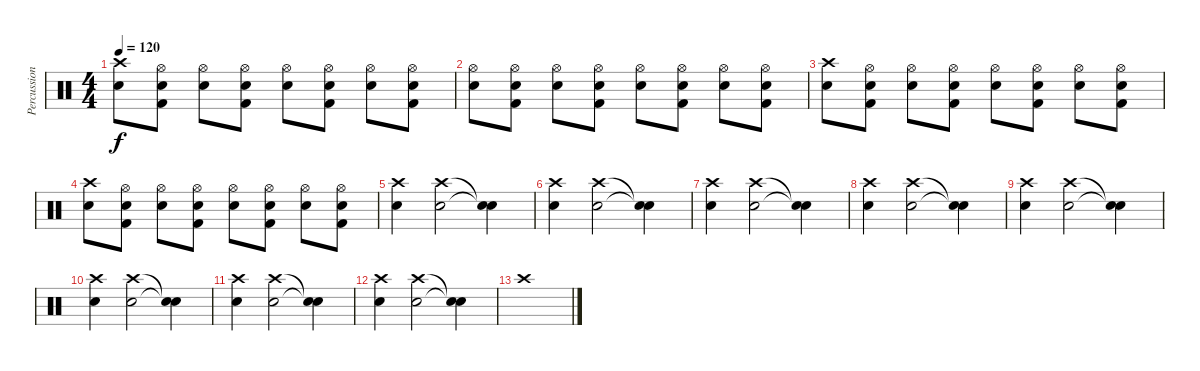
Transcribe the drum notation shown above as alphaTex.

\track ("Percussion" "Percussion") {instrument percussion}
\staff {score}
\articulation defaults
\ts (4 4)
\tempo 120
\clef neutral
\ks c
("Snare (hit) 2" "Crash high (hit)").8{dy f} ("Hi-Hat (open)" "Snare (hit) 2" "Kick (hit) 2").8 ("Hi-Hat (open)" "Snare (hit) 2").8 ("Hi-Hat (open)" "Snare (hit) 2" "Kick (hit) 2").8 ("Hi-Hat (open)" "Snare (hit) 2").8 ("Hi-Hat (open)" "Snare (hit) 2" "Kick (hit) 2").8 ("Hi-Hat (open)" "Snare (hit) 2").8 ("Hi-Hat (open)" "Snare (hit) 2" "Kick (hit) 2").8 |
("Hi-Hat (open)" "Snare (hit) 2").8 ("Hi-Hat (open)" "Snare (hit) 2" "Kick (hit) 2").8 ("Hi-Hat (open)" "Snare (hit) 2").8 ("Hi-Hat (open)" "Snare (hit) 2" "Kick (hit) 2").8 ("Hi-Hat (open)" "Snare (hit) 2").8 ("Hi-Hat (open)" "Snare (hit) 2" "Kick (hit) 2").8 ("Hi-Hat (open)" "Snare (hit) 2").8 ("Hi-Hat (open)" "Snare (hit) 2" "Kick (hit) 2").8 |
("Snare (hit) 2" "Crash high (hit)").8 ("Hi-Hat (open)" "Snare (hit) 2" "Kick (hit) 2").8 ("Hi-Hat (open)" "Snare (hit) 2").8 ("Hi-Hat (open)" "Snare (hit) 2" "Kick (hit) 2").8 ("Hi-Hat (open)" "Snare (hit) 2").8 ("Hi-Hat (open)" "Snare (hit) 2" "Kick (hit) 2").8 ("Hi-Hat (open)" "Snare (hit) 2").8 ("Hi-Hat (open)" "Snare (hit) 2" "Kick (hit) 2").8 |
("Snare (hit) 2" "Crash high (hit)").8 ("Hi-Hat (open)" "Snare (hit) 2" "Kick (hit) 2").8 ("Hi-Hat (open)" "Snare (hit) 2").8 ("Hi-Hat (open)" "Snare (hit) 2" "Kick (hit) 2").8 ("Hi-Hat (open)" "Snare (hit) 2").8 ("Hi-Hat (open)" "Snare (hit) 2" "Kick (hit) 2").8 ("Hi-Hat (open)" "Snare (hit) 2").8 ("Hi-Hat (open)" "Snare (hit) 2" "Kick (hit) 2").8 |
("Snare (hit) 2" "Crash high (hit)").4 ("Snare (hit) 2" "Crash high (hit)").2 ("Snare (hit)"{t} "Snare (hit)"{t}).4 |
("Snare (hit) 2" "Crash high (hit)").4 ("Snare (hit) 2" "Crash high (hit)").2 ("Snare (hit)"{t} "Snare (hit)"{t}).4 |
("Snare (hit) 2" "Crash high (hit)").4 ("Snare (hit) 2" "Crash high (hit)").2 ("Snare (hit)"{t} "Snare (hit)"{t}).4 |
("Snare (hit) 2" "Crash high (hit)").4 ("Snare (hit) 2" "Crash high (hit)").2 ("Snare (hit)"{t} "Snare (hit)"{t}).4 |
("Snare (hit) 2" "Crash high (hit)").4{volume 10} ("Snare (hit) 2" "Crash high (hit)").2 ("Snare (hit)"{t} "Snare (hit)"{t}).4 |
("Snare (hit) 2" "Crash high (hit)").4 ("Snare (hit) 2" "Crash high (hit)").2 ("Snare (hit)"{t} "Snare (hit)"{t}).4 |
("Snare (hit) 2" "Crash high (hit)").4 ("Snare (hit) 2" "Crash high (hit)").2 ("Snare (hit)"{t} "Snare (hit)"{t}).4 |
("Snare (hit) 2" "Crash high (hit)").4 ("Snare (hit) 2" "Crash high (hit)").2 ("Snare (hit)"{t} "Snare (hit)"{t}).4 |
"Crash high (hit)".1
